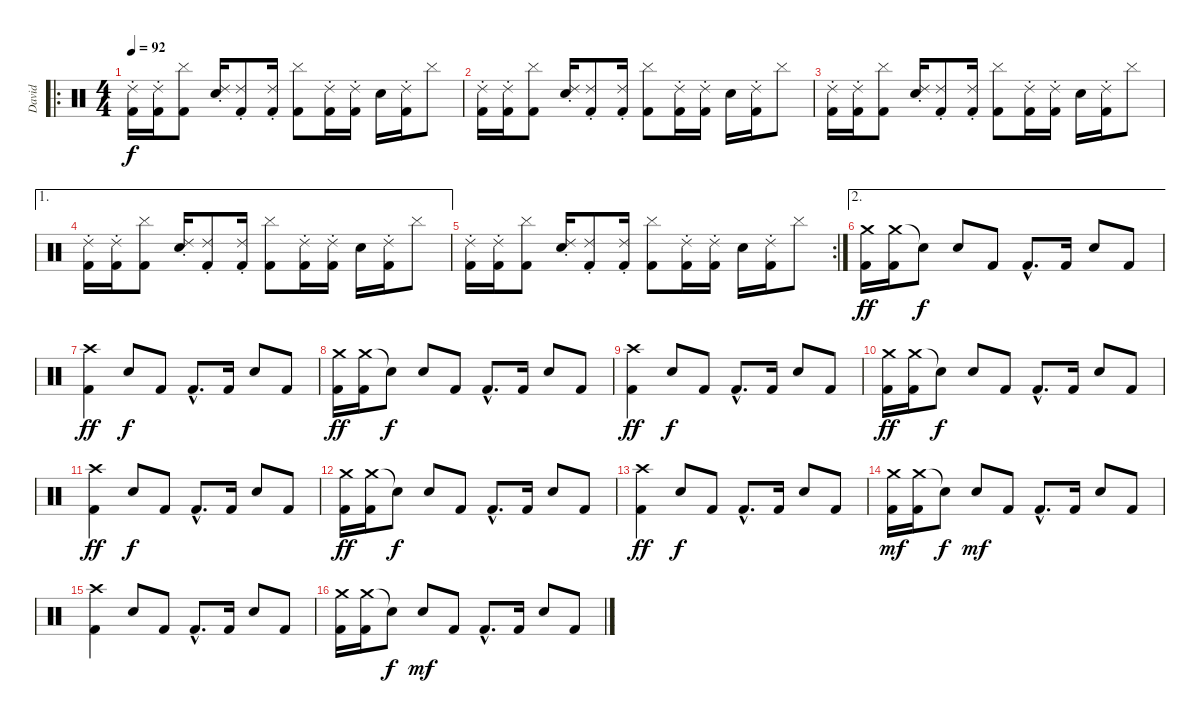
\track ("David" "David") {instrument percussion}
\staff {score}
\articulation defaults
\ro
\ts (4 4)
\tempo 92
\clef neutral
\ks c
("Ride (choke) 2" "Kick (hit) 2").16{dy f} ("Ride (choke) 2" "Kick (hit) 2").16 ("Cymbal (hit)" "Kick (hit) 2").8 ("Ride (choke) 2" "Snare (hit) 2").16 ("Ride (choke) 2" "Kick (hit) 2").8 ("Ride (choke) 2" "Kick (hit) 2").16 ("Cymbal (hit)" "Kick (hit) 2").8 ("Ride (choke) 2" "Kick (hit) 2").16 ("Ride (choke) 2" "Kick (hit) 2").16 "Snare (hit) 2".16 ("Ride (choke) 2" "Kick (hit) 2").16 "Cymbal (hit)".8 |
("Ride (choke) 2" "Kick (hit) 2").16 ("Ride (choke) 2" "Kick (hit) 2").16 ("Cymbal (hit)" "Kick (hit) 2").8 ("Ride (choke) 2" "Snare (hit) 2").16 ("Ride (choke) 2" "Kick (hit) 2").8 ("Ride (choke) 2" "Kick (hit) 2").16 ("Cymbal (hit)" "Kick (hit) 2").8 ("Ride (choke) 2" "Kick (hit) 2").16 ("Ride (choke) 2" "Kick (hit) 2").16 "Snare (hit) 2".16 ("Ride (choke) 2" "Kick (hit) 2").16 "Cymbal (hit)".8 |
("Ride (choke) 2" "Kick (hit) 2").16 ("Ride (choke) 2" "Kick (hit) 2").16 ("Cymbal (hit)" "Kick (hit) 2").8 ("Ride (choke) 2" "Snare (hit) 2").16 ("Ride (choke) 2" "Kick (hit) 2").8 ("Ride (choke) 2" "Kick (hit) 2").16 ("Cymbal (hit)" "Kick (hit) 2").8 ("Ride (choke) 2" "Kick (hit) 2").16 ("Ride (choke) 2" "Kick (hit) 2").16 "Snare (hit) 2".16 ("Ride (choke) 2" "Kick (hit) 2").16 "Cymbal (hit)".8 |
\ae 1
("Ride (choke) 2" "Kick (hit) 2").16 ("Ride (choke) 2" "Kick (hit) 2").16 ("Cymbal (hit)" "Kick (hit) 2").8 ("Ride (choke) 2" "Snare (hit) 2").16 ("Ride (choke) 2" "Kick (hit) 2").8 ("Ride (choke) 2" "Kick (hit) 2").16 ("Cymbal (hit)" "Kick (hit) 2").8 ("Ride (choke) 2" "Kick (hit) 2").16 ("Ride (choke) 2" "Kick (hit) 2").16 "Snare (hit) 2".16 ("Ride (choke) 2" "Kick (hit) 2").16 "Cymbal (hit)".8 |
\rc 2
("Ride (choke) 2" "Kick (hit) 2").16 ("Ride (choke) 2" "Kick (hit) 2").16 ("Cymbal (hit)" "Kick (hit) 2").8 ("Ride (choke) 2" "Snare (hit) 2").16 ("Ride (choke) 2" "Kick (hit) 2").8 ("Ride (choke) 2" "Kick (hit) 2").16 ("Cymbal (hit)" "Kick (hit) 2").8 ("Ride (choke) 2" "Kick (hit) 2").16 ("Ride (choke) 2" "Kick (hit) 2").16 "Snare (hit) 2".16 ("Ride (choke) 2" "Kick (hit) 2").16 "Cymbal (hit)".8 |
\ae 2
("Crash medium (hit)" "Kick (hit) 2").16{dy ff} ("Crash medium (hit)" "Kick (hit) 2").16 "Snare (hit)"{t}.8{dy f} "Snare (hit) 2".8 "Kick (hit) 2".8 "Kick (hit) 2"{hac}.8{d} "Kick (hit) 2".16 "Snare (hit) 2".8 "Kick (hit) 2".8 |
("Crash high (hit)" "Kick (hit) 2").4{dy ff} "Snare (hit) 2".8{dy f} "Kick (hit) 2".8 "Kick (hit) 2"{hac}.8{d} "Kick (hit) 2".16 "Snare (hit) 2".8 "Kick (hit) 2".8 |
("Crash medium (hit)" "Kick (hit) 2").16{dy ff} ("Crash medium (hit)" "Kick (hit) 2").16 "Snare (hit)"{t}.8{dy f} "Snare (hit) 2".8 "Kick (hit) 2".8 "Kick (hit) 2"{hac}.8{d} "Kick (hit) 2".16 "Snare (hit) 2".8 "Kick (hit) 2".8 |
("Crash high (hit)" "Kick (hit) 2").4{dy ff} "Snare (hit) 2".8{dy f} "Kick (hit) 2".8 "Kick (hit) 2"{hac}.8{d} "Kick (hit) 2".16 "Snare (hit) 2".8 "Kick (hit) 2".8 |
("Crash medium (hit)" "Kick (hit) 2").16{dy ff} ("Crash medium (hit)" "Kick (hit) 2").16 "Snare (hit)"{t}.8{dy f} "Snare (hit) 2".8 "Kick (hit) 2".8 "Kick (hit) 2"{hac}.8{d} "Kick (hit) 2".16 "Snare (hit) 2".8 "Kick (hit) 2".8 |
("Crash high (hit)" "Kick (hit) 2").4{dy ff} "Snare (hit) 2".8{dy f} "Kick (hit) 2".8 "Kick (hit) 2"{hac}.8{d} "Kick (hit) 2".16 "Snare (hit) 2".8 "Kick (hit) 2".8 |
("Crash medium (hit)" "Kick (hit) 2").16{dy ff} ("Crash medium (hit)" "Kick (hit) 2").16 "Snare (hit)"{t}.8{dy f} "Snare (hit) 2".8 "Kick (hit) 2".8 "Kick (hit) 2"{hac}.8{d} "Kick (hit) 2".16 "Snare (hit) 2".8 "Kick (hit) 2".8 |
("Crash high (hit)" "Kick (hit) 2").4{dy ff} "Snare (hit) 2".8{dy f} "Kick (hit) 2".8 "Kick (hit) 2"{hac}.8{d} "Kick (hit) 2".16 "Snare (hit) 2".8 "Kick (hit) 2".8 |
("Crash medium (hit)" "Kick (hit) 2").16{dy mf} ("Crash medium (hit)" "Kick (hit) 2").16 "Snare (hit)"{t}.8{dy f} "Snare (hit) 2".8{dy mf} "Kick (hit) 2".8 "Kick (hit) 2"{hac}.8{d} "Kick (hit) 2".16 "Snare (hit) 2".8 "Kick (hit) 2".8 |
("Crash high (hit)" "Kick (hit) 2").4 "Snare (hit) 2".8 "Kick (hit) 2".8 "Kick (hit) 2"{hac}.8{d} "Kick (hit) 2".16 "Snare (hit) 2".8 "Kick (hit) 2".8 |
("Crash medium (hit)" "Kick (hit) 2").16 ("Crash medium (hit)" "Kick (hit) 2").16 "Snare (hit)"{t}.8{dy f} "Snare (hit) 2".8{dy mf} "Kick (hit) 2".8 "Kick (hit) 2"{hac}.8{d} "Kick (hit) 2".16 "Snare (hit) 2".8 "Kick (hit) 2".8
